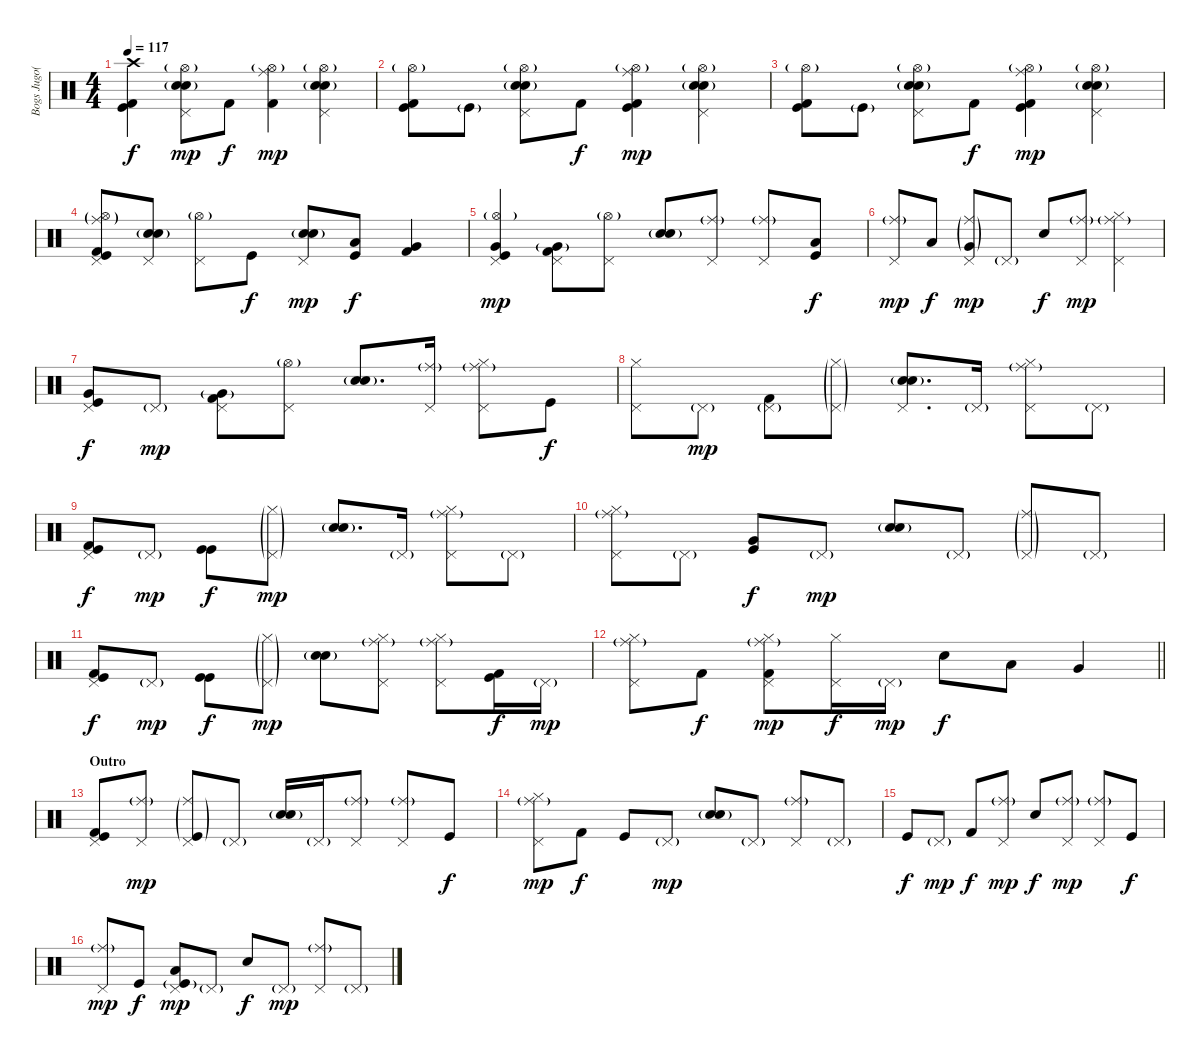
\track ("Bogs Jugo(Drums)" "Bogs Jugo(") {instrument percussion}
\staff {score}
\articulation defaults
\ts (4 4)
\tempo 117
\clef neutral
\ks c
("Crash high (hit)" "Kick (hit) 2" "Kick (hit)").4{dy f} ("Electric Snare (hit)" "Snare (hit) 2"{g} "Pedal Hi-Hat (hit)" "Hi-Hat (open)"{g}).8{dy mp} "Kick (hit) 2".8{dy f} ("Kick (hit) 2" "Ride (middle)" "Hi-Hat (open)"{g}).4{dy mp} ("Electric Snare (hit)" "Snare (hit) 2"{g} "Pedal Hi-Hat (hit)" "Hi-Hat (open)"{g}).4 |
("Hi-Hat (open)"{g} "Kick (hit) 2" "Kick (hit)").8 "Kick (hit)"{g}.8 ("Electric Snare (hit)" "Snare (hit) 2"{g} "Pedal Hi-Hat (hit)" "Hi-Hat (open)"{g}).8 "Kick (hit) 2".8{dy f} ("Kick (hit) 2" "Kick (hit)" "Ride (middle)" "Hi-Hat (open)"{g}).4{dy mp} ("Electric Snare (hit)" "Snare (hit) 2"{g} "Pedal Hi-Hat (hit)" "Hi-Hat (open)"{g}).4 |
("Hi-Hat (open)"{g} "Kick (hit) 2" "Kick (hit)").8 "Kick (hit)"{g}.8 ("Electric Snare (hit)" "Snare (hit) 2"{g} "Pedal Hi-Hat (hit)" "Hi-Hat (open)"{g}).8 "Kick (hit) 2".8{dy f} ("Kick (hit) 2" "Kick (hit)" "Ride (middle)" "Hi-Hat (open)"{g}).4{dy mp} ("Electric Snare (hit)" "Snare (hit) 2"{g} "Pedal Hi-Hat (hit)" "Hi-Hat (open)"{g}).4 |
("Pedal Hi-Hat (hit)" "Kick (hit) 2" "Kick (hit)" "Ride (middle)"{g} "Hi-Hat (open)"{g}).8 ("Electric Snare (hit)" "Snare (hit) 2"{g} "Pedal Hi-Hat (hit)").8 ("Pedal Hi-Hat (hit)" "Hi-Hat (open)"{g}).8 "Kick (hit)".8{dy f} ("Electric Snare (hit)" "Snare (hit) 2"{g} "Pedal Hi-Hat (hit)").8{dy mp} ("Low Floor Tom (hit)" "Kick (hit)").8{dy f} ("Very Low Tom (hit)" "Kick (hit) 2").4 |
("Pedal Hi-Hat (hit)" "Very Low Tom (hit)" "Kick (hit)" "Hi-Hat (open)"{g}).4{dy mp} ("Pedal Hi-Hat (hit)" "Very Low Tom (hit)"{g} "Kick (hit) 2").8 ("Pedal Hi-Hat (hit)" "Hi-Hat (open)"{g}).8 ("Electric Snare (hit)" "Snare (hit) 2"{g}).8 ("Pedal Hi-Hat (hit)" "Ride (middle)"{g}).8 ("Pedal Hi-Hat (hit)" "Ride (middle)"{g}).8 ("Low Floor Tom (hit)" "Kick (hit)").8{dy f} |
("Pedal Hi-Hat (hit)" "Ride (middle)"{g}).8{dy mp} "Low Tom (hit)".8{dy f} ("Pedal Hi-Hat (hit)" "Ride (middle)"{g} "Very Low Tom (hit)"{g}).8{dy mp} "Pedal Hi-Hat (hit)"{g}.8 "Snare (hit) 2".8{dy f} ("Pedal Hi-Hat (hit)" "Ride (middle)"{g}).8{dy mp} ("Pedal Hi-Hat (hit)" "Ride (middle)"{g} "Hi-Hat (closed)").4 |
("Pedal Hi-Hat (hit)" "Very Low Tom (hit)" "Kick (hit)").8{dy f} "Pedal Hi-Hat (hit)"{g}.8{dy mp} ("Pedal Hi-Hat (hit)" "Very Low Tom (hit)"{g} "Kick (hit) 2").8 ("Pedal Hi-Hat (hit)" "Hi-Hat (open)"{g}).8 ("Electric Snare (hit)" "Snare (hit) 2"{g}).8{d} ("Pedal Hi-Hat (hit)" "Ride (middle)"{g}).16 ("Pedal Hi-Hat (hit)" "Hi-Hat (closed)" "Ride (middle)"{g}).8 "Kick (hit)".8{dy f} |
("Pedal Hi-Hat (hit)" "Hi-Hat (closed)").8 "Pedal Hi-Hat (hit)"{g}.8{dy mp} ("Pedal Hi-Hat (hit)"{g} "Kick (hit) 2").8 ("Pedal Hi-Hat (hit)"{g} "Hi-Hat (closed)"{g}).8 ("Electric Snare (hit)" "Snare (hit) 2"{g} "Pedal Hi-Hat (hit)").8{d} "Pedal Hi-Hat (hit)"{g}.16 ("Pedal Hi-Hat (hit)" "Hi-Hat (closed)" "Ride (middle)"{g}).8 "Pedal Hi-Hat (hit)"{g}.8 |
("Pedal Hi-Hat (hit)" "Kick (hit) 2" "Kick (hit)").8{dy f} "Pedal Hi-Hat (hit)"{g}.8{dy mp} ("Kick (hit)" "Kick (hit)").8{dy f} ("Pedal Hi-Hat (hit)"{g} "Hi-Hat (closed)"{g}).8{dy mp} ("Electric Snare (hit)" "Snare (hit) 2"{g}).8{d} "Pedal Hi-Hat (hit)"{g}.16 ("Pedal Hi-Hat (hit)" "Hi-Hat (closed)" "Ride (middle)"{g}).8 "Pedal Hi-Hat (hit)"{g}.8 |
("Pedal Hi-Hat (hit)" "Hi-Hat (closed)" "Ride (middle)"{g}).8 "Pedal Hi-Hat (hit)"{g}.8 ("Very Low Tom (hit)" "Kick (hit)").8{dy f} "Pedal Hi-Hat (hit)"{g}.8{dy mp} ("Electric Snare (hit)" "Snare (hit) 2"{g}).8 "Pedal Hi-Hat (hit)"{g}.8 ("Pedal Hi-Hat (hit)"{g} "Ride (middle)"{g}).8 "Pedal Hi-Hat (hit)"{g}.8 |
("Pedal Hi-Hat (hit)" "Kick (hit) 2" "Kick (hit)").8{dy f} "Pedal Hi-Hat (hit)"{g}.8{dy mp} ("Kick (hit)" "Kick (hit)").8{dy f} ("Pedal Hi-Hat (hit)"{g} "Hi-Hat (closed)"{g}).8{dy mp} ("Electric Snare (hit)" "Snare (hit) 2"{g}).8 ("Pedal Hi-Hat (hit)" "Hi-Hat (closed)" "Ride (middle)"{g}).8 ("Pedal Hi-Hat (hit)" "Hi-Hat (closed)" "Ride (middle)"{g}).8 ("Kick (hit) 2" "Kick (hit)").16{dy f} "Pedal Hi-Hat (hit)"{g}.16{dy mp} |
\barLineRight lightlight
("Pedal Hi-Hat (hit)" "Hi-Hat (closed)" "Ride (middle)"{g}).8 "Kick (hit) 2".8{dy f} ("Pedal Hi-Hat (hit)" "Hi-Hat (closed)" "Ride (middle)"{g} "Kick (hit) 2").8{dy mp} ("Pedal Hi-Hat (hit)" "Hi-Hat (closed)").16{dy f} "Pedal Hi-Hat (hit)"{g}.16{dy mp} "Electric Snare (hit)".8{dy f} "Low Tom (hit)".8 "Very Low Tom (hit)".4 |
\section ("" "Outro")
("Pedal Hi-Hat (hit)" "Kick (hit) 2" "Kick (hit)").8 ("Pedal Hi-Hat (hit)" "Ride (middle)"{g}).8{dy mp} ("Pedal Hi-Hat (hit)" "Ride (middle)"{g} "Kick (hit)"{g}).8 "Pedal Hi-Hat (hit)"{g}.8 ("Electric Snare (hit)" "Snare (hit) 2"{g}).16 "Pedal Hi-Hat (hit)"{g}.16 ("Pedal Hi-Hat (hit)" "Ride (middle)"{g}).8 ("Pedal Hi-Hat (hit)" "Ride (middle)"{g}).8 "Kick (hit)".8{dy f} |
("Pedal Hi-Hat (hit)" "Hi-Hat (closed)" "Ride (middle)"{g}).8{dy mp} "Kick (hit) 2".8{dy f} "Kick (hit)".8 "Pedal Hi-Hat (hit)"{g}.8{dy mp} ("Electric Snare (hit)" "Snare (hit) 2"{g}).8 "Pedal Hi-Hat (hit)"{g}.8 ("Pedal Hi-Hat (hit)" "Ride (middle)"{g}).8 "Pedal Hi-Hat (hit)"{g}.8 |
"Kick (hit)".8{dy f} "Pedal Hi-Hat (hit)"{g}.8{dy mp} "Kick (hit) 2".8{dy f} ("Pedal Hi-Hat (hit)" "Ride (middle)"{g}).8{dy mp} "Electric Snare (hit)".8{dy f} ("Pedal Hi-Hat (hit)" "Ride (middle)"{g}).8{dy mp} ("Pedal Hi-Hat (hit)" "Ride (middle)"{g}).8 "Kick (hit)".8{dy f} |
("Pedal Hi-Hat (hit)" "Ride (middle)"{g}).8{dy mp} "Kick (hit)".8{dy f} ("Pedal Hi-Hat (hit)" "Low Tom (hit)" "Kick (hit)"{g}).8{dy mp} "Pedal Hi-Hat (hit)"{g}.8 "Electric Snare (hit)".8{dy f} "Pedal Hi-Hat (hit)"{g}.8{dy mp} ("Pedal Hi-Hat (hit)" "Ride (middle)"{g}).8 "Pedal Hi-Hat (hit)"{g}.8
